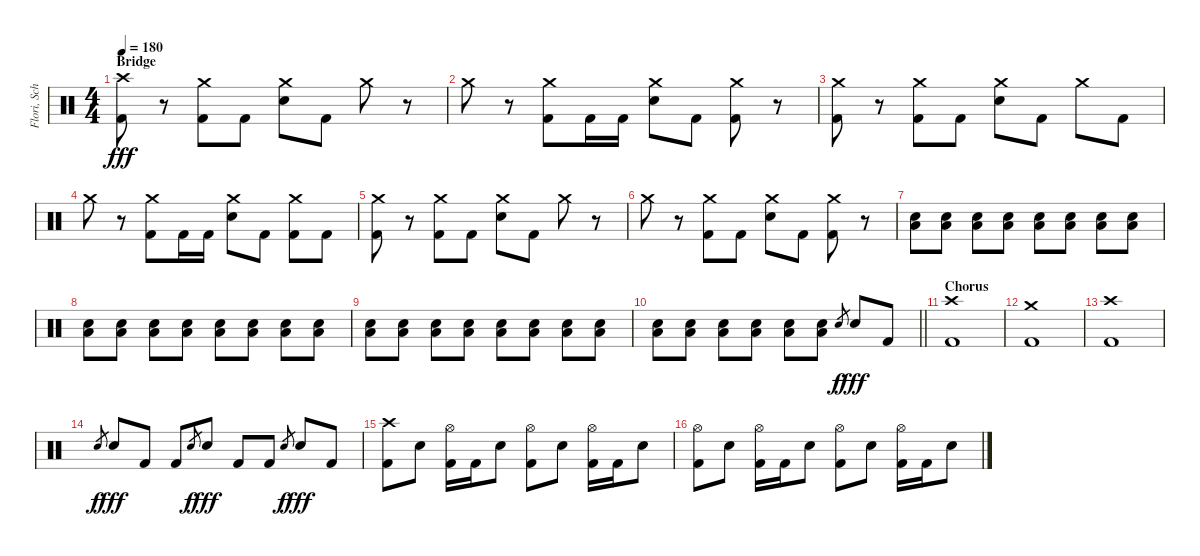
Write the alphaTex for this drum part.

\track ("Flori, Schlagzeug" "Flori, Sch") {instrument percussion}
\staff {score}
\articulation defaults
\ts (4 4)
\section ("" "Bridge")
\tempo 180
\clef neutral
\ks c
("Crash high (hit)" "Kick (hit) 2").8{dy fff} r.8 ("Crash medium (hit)" "Kick (hit) 2").8 "Kick (hit) 2".8 ("Crash medium (hit)" "Electric Snare (hit)").8 "Kick (hit) 2".8 "Crash medium (hit)".8 r.8 |
"Crash medium (hit)".8 r.8 ("Crash medium (hit)" "Kick (hit) 2").8 "Kick (hit) 2".16 "Kick (hit) 2".16 ("Crash medium (hit)" "Electric Snare (hit)").8 "Kick (hit) 2".8 ("Crash medium (hit)" "Kick (hit) 2").8 r.8 |
("Crash medium (hit)" "Kick (hit) 2").8 r.8 ("Crash medium (hit)" "Kick (hit) 2").8 "Kick (hit) 2".8 ("Crash medium (hit)" "Electric Snare (hit)").8 "Kick (hit) 2".8 "Crash medium (hit)".8 "Kick (hit) 2".8 |
"Crash medium (hit)".8 r.8 ("Crash medium (hit)" "Kick (hit) 2").8 "Kick (hit) 2".16 "Kick (hit) 2".16 ("Crash medium (hit)" "Electric Snare (hit)").8 "Kick (hit) 2".8 ("Crash medium (hit)" "Kick (hit) 2").8 "Kick (hit) 2".8 |
("Crash medium (hit)" "Kick (hit) 2").8 r.8 ("Crash medium (hit)" "Kick (hit) 2").8 "Kick (hit) 2".8 ("Crash medium (hit)" "Electric Snare (hit)").8 "Kick (hit) 2".8 "Crash medium (hit)".8 r.8 |
"Crash medium (hit)".8 r.8 ("Crash medium (hit)" "Kick (hit) 2").8 "Kick (hit) 2".8 ("Crash medium (hit)" "Electric Snare (hit)").8 "Kick (hit) 2".8 ("Crash medium (hit)" "Kick (hit) 2").8 r.8 |
("Electric Snare (hit)" "Low Floor Tom (hit)").8 ("Electric Snare (hit)" "Low Floor Tom (hit)").8 ("Electric Snare (hit)" "Low Floor Tom (hit)").8 ("Electric Snare (hit)" "Low Floor Tom (hit)").8 ("Electric Snare (hit)" "Low Floor Tom (hit)").8 ("Electric Snare (hit)" "Low Floor Tom (hit)").8 ("Electric Snare (hit)" "Low Floor Tom (hit)").8 ("Electric Snare (hit)" "Low Floor Tom (hit)").8 |
("Electric Snare (hit)" "Low Floor Tom (hit)").8 ("Electric Snare (hit)" "Low Floor Tom (hit)").8 ("Electric Snare (hit)" "Low Floor Tom (hit)").8 ("Electric Snare (hit)" "Low Floor Tom (hit)").8 ("Electric Snare (hit)" "Low Floor Tom (hit)").8 ("Electric Snare (hit)" "Low Floor Tom (hit)").8 ("Electric Snare (hit)" "Low Floor Tom (hit)").8 ("Electric Snare (hit)" "Low Floor Tom (hit)").8 |
("Electric Snare (hit)" "Low Floor Tom (hit)").8 ("Electric Snare (hit)" "Low Floor Tom (hit)").8 ("Electric Snare (hit)" "Low Floor Tom (hit)").8 ("Electric Snare (hit)" "Low Floor Tom (hit)").8 ("Electric Snare (hit)" "Low Floor Tom (hit)").8 ("Electric Snare (hit)" "Low Floor Tom (hit)").8 ("Electric Snare (hit)" "Low Floor Tom (hit)").8 ("Electric Snare (hit)" "Low Floor Tom (hit)").8 |
\barLineRight lightlight
("Electric Snare (hit)" "Low Floor Tom (hit)").8 ("Electric Snare (hit)" "Low Floor Tom (hit)").8 ("Electric Snare (hit)" "Low Floor Tom (hit)").8 ("Electric Snare (hit)" "Low Floor Tom (hit)").8 ("Electric Snare (hit)" "Low Floor Tom (hit)").8 ("Electric Snare (hit)" "Low Floor Tom (hit)").8 "Electric Snare (hit)".8{gr dy f} "Electric Snare (hit)".8{dy fff} "Kick (hit) 2".8 |
\section ("" "Chorus")
("Crash high (hit)" "Kick (hit) 2").1 |
("Crash medium (hit)" "Kick (hit) 2").1 |
("Crash high (hit)" "Kick (hit) 2").1 |
"Electric Snare (hit)".8{gr dy f} "Electric Snare (hit)".8{dy fff} "Kick (hit) 2".8 "Kick (hit) 2".8 "Electric Snare (hit)".8{gr dy f} "Electric Snare (hit)".8{dy fff} "Kick (hit) 2".8 "Kick (hit) 2".8 "Electric Snare (hit)".8{gr dy f} "Electric Snare (hit)".8{dy fff} "Kick (hit) 2".8 |
("Crash high (hit)" "Kick (hit) 2").8 "Electric Snare (hit)".8 ("Hi-Hat (open)" "Kick (hit) 2").16 "Kick (hit) 2".16 "Electric Snare (hit)".8 ("Hi-Hat (open)" "Kick (hit) 2").8 "Electric Snare (hit)".8 ("Hi-Hat (open)" "Kick (hit) 2").16 "Kick (hit) 2".16 "Electric Snare (hit)".8 |
("Hi-Hat (open)" "Kick (hit) 2").8 "Electric Snare (hit)".8 ("Hi-Hat (open)" "Kick (hit) 2").16 "Kick (hit) 2".16 "Electric Snare (hit)".8 ("Hi-Hat (open)" "Kick (hit) 2").8 "Electric Snare (hit)".8 ("Hi-Hat (open)" "Kick (hit) 2").16 "Kick (hit) 2".16 "Electric Snare (hit)".8
